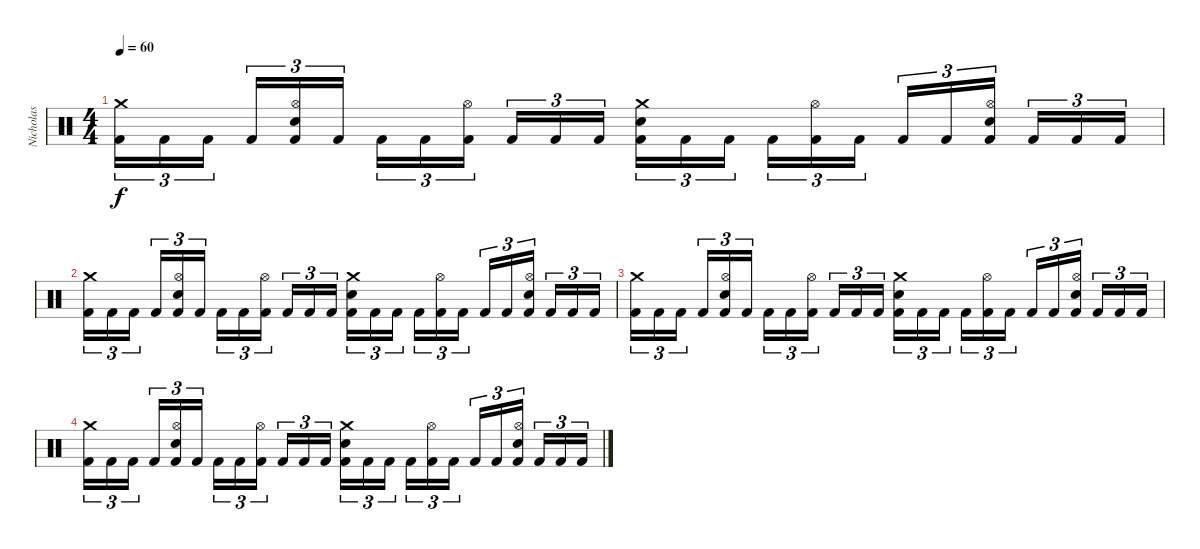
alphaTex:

\track ("Nicholas" "Nicholas") {instrument percussion}
\staff {score}
\articulation defaults
\ts (4 4)
\tempo 60
\clef neutral
\ks c
("Crash medium (hit)" "Kick (hit) 2").16{tu (3 2) dy f} "Kick (hit) 2".16{tu (3 2)} "Kick (hit) 2".16{tu (3 2)} "Kick (hit) 2".16{tu (3 2)} ("Hi-Hat (open)" "Snare (hit) 2" "Kick (hit) 2").16{tu (3 2)} "Kick (hit) 2".16{tu (3 2)} "Kick (hit) 2".16{tu (3 2)} "Kick (hit) 2".16{tu (3 2)} ("Hi-Hat (open)" "Kick (hit) 2").16{tu (3 2)} "Kick (hit) 2".16{tu (3 2)} "Kick (hit) 2".16{tu (3 2)} "Kick (hit) 2".16{tu (3 2)} ("Crash medium (hit)" "Snare (hit) 2" "Kick (hit) 2").16{tu (3 2)} "Kick (hit) 2".16{tu (3 2)} "Kick (hit) 2".16{tu (3 2)} "Kick (hit) 2".16{tu (3 2)} ("Hi-Hat (open)" "Kick (hit) 2").16{tu (3 2)} "Kick (hit) 2".16{tu (3 2)} "Kick (hit) 2".16{tu (3 2)} "Kick (hit) 2".16{tu (3 2)} ("Hi-Hat (open)" "Snare (hit) 2" "Kick (hit) 2").16{tu (3 2)} "Kick (hit) 2".16{tu (3 2)} "Kick (hit) 2".16{tu (3 2)} "Kick (hit) 2".16{tu (3 2)} |
("Crash medium (hit)" "Kick (hit) 2").16{tu (3 2)} "Kick (hit) 2".16{tu (3 2)} "Kick (hit) 2".16{tu (3 2)} "Kick (hit) 2".16{tu (3 2)} ("Hi-Hat (open)" "Snare (hit) 2" "Kick (hit) 2").16{tu (3 2)} "Kick (hit) 2".16{tu (3 2)} "Kick (hit) 2".16{tu (3 2)} "Kick (hit) 2".16{tu (3 2)} ("Hi-Hat (open)" "Kick (hit) 2").16{tu (3 2)} "Kick (hit) 2".16{tu (3 2)} "Kick (hit) 2".16{tu (3 2)} "Kick (hit) 2".16{tu (3 2)} ("Crash medium (hit)" "Snare (hit) 2" "Kick (hit) 2").16{tu (3 2)} "Kick (hit) 2".16{tu (3 2)} "Kick (hit) 2".16{tu (3 2)} "Kick (hit) 2".16{tu (3 2)} ("Hi-Hat (open)" "Kick (hit) 2").16{tu (3 2)} "Kick (hit) 2".16{tu (3 2)} "Kick (hit) 2".16{tu (3 2)} "Kick (hit) 2".16{tu (3 2)} ("Hi-Hat (open)" "Snare (hit) 2" "Kick (hit) 2").16{tu (3 2)} "Kick (hit) 2".16{tu (3 2)} "Kick (hit) 2".16{tu (3 2)} "Kick (hit) 2".16{tu (3 2)} |
("Crash medium (hit)" "Kick (hit) 2").16{tu (3 2)} "Kick (hit) 2".16{tu (3 2)} "Kick (hit) 2".16{tu (3 2)} "Kick (hit) 2".16{tu (3 2)} ("Hi-Hat (open)" "Snare (hit) 2" "Kick (hit) 2").16{tu (3 2)} "Kick (hit) 2".16{tu (3 2)} "Kick (hit) 2".16{tu (3 2)} "Kick (hit) 2".16{tu (3 2)} ("Hi-Hat (open)" "Kick (hit) 2").16{tu (3 2)} "Kick (hit) 2".16{tu (3 2)} "Kick (hit) 2".16{tu (3 2)} "Kick (hit) 2".16{tu (3 2)} ("Crash medium (hit)" "Snare (hit) 2" "Kick (hit) 2").16{tu (3 2)} "Kick (hit) 2".16{tu (3 2)} "Kick (hit) 2".16{tu (3 2)} "Kick (hit) 2".16{tu (3 2)} ("Hi-Hat (open)" "Kick (hit) 2").16{tu (3 2)} "Kick (hit) 2".16{tu (3 2)} "Kick (hit) 2".16{tu (3 2)} "Kick (hit) 2".16{tu (3 2)} ("Hi-Hat (open)" "Snare (hit) 2" "Kick (hit) 2").16{tu (3 2)} "Kick (hit) 2".16{tu (3 2)} "Kick (hit) 2".16{tu (3 2)} "Kick (hit) 2".16{tu (3 2)} |
("Crash medium (hit)" "Kick (hit) 2").16{tu (3 2)} "Kick (hit) 2".16{tu (3 2)} "Kick (hit) 2".16{tu (3 2)} "Kick (hit) 2".16{tu (3 2)} ("Hi-Hat (open)" "Snare (hit) 2" "Kick (hit) 2").16{tu (3 2)} "Kick (hit) 2".16{tu (3 2)} "Kick (hit) 2".16{tu (3 2)} "Kick (hit) 2".16{tu (3 2)} ("Hi-Hat (open)" "Kick (hit) 2").16{tu (3 2)} "Kick (hit) 2".16{tu (3 2)} "Kick (hit) 2".16{tu (3 2)} "Kick (hit) 2".16{tu (3 2)} ("Crash medium (hit)" "Snare (hit) 2" "Kick (hit) 2").16{tu (3 2)} "Kick (hit) 2".16{tu (3 2)} "Kick (hit) 2".16{tu (3 2)} "Kick (hit) 2".16{tu (3 2)} ("Hi-Hat (open)" "Kick (hit) 2").16{tu (3 2)} "Kick (hit) 2".16{tu (3 2)} "Kick (hit) 2".16{tu (3 2)} "Kick (hit) 2".16{tu (3 2)} ("Hi-Hat (open)" "Snare (hit) 2" "Kick (hit) 2").16{tu (3 2)} "Kick (hit) 2".16{tu (3 2)} "Kick (hit) 2".16{tu (3 2)} "Kick (hit) 2".16{tu (3 2)}
